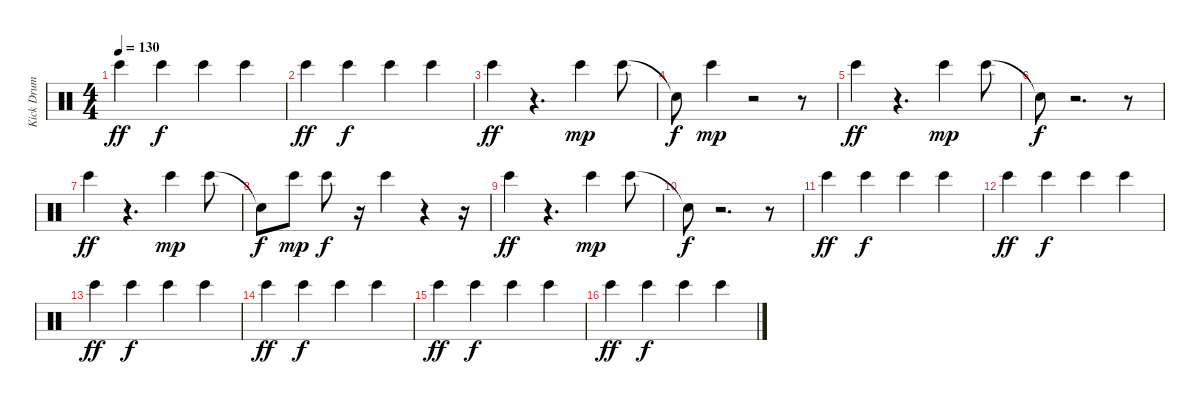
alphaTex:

\track ("Kick Drum" "Kick Drum") {instrument percussion}
\staff {score}
\articulation defaults
\ts (4 4)
\tempo 130
\clef neutral
\ks c "Bongo High (hit)".4{dy ff} "Bongo High (hit)".4{dy f} "Bongo High (hit)".4 "Bongo High (hit)".4
|
"Bongo High (hit)".4{dy ff} "Bongo High (hit)".4{dy f} "Bongo High (hit)".4 "Bongo High (hit)".4 |
"Bongo High (hit)".4{dy ff} r.4{d} "Bongo High (hit)".4{dy mp} "Bongo High (hit)".8 |
"Snare (hit)"{t}.8{dy f} "Bongo High (hit)".4{dy mp} r.2 r.8 |
"Bongo High (hit)".4{dy ff} r.4{d} "Bongo High (hit)".4{dy mp} "Bongo High (hit)".8 |
"Snare (hit)"{t}.8{dy f} r.2{d} r.8 |
"Bongo High (hit)".4{dy ff} r.4{d} "Bongo High (hit)".4{dy mp} "Bongo High (hit)".8 |
"Snare (hit)"{t}.8{dy f} "Bongo High (hit)".8{dy mp} "Bongo High (hit)".8{dy f} r.16 "Bongo High (hit)".4 r.4 r.16 |
"Bongo High (hit)".4{dy ff} r.4{d} "Bongo High (hit)".4{dy mp} "Bongo High (hit)".8 |
"Snare (hit)"{t}.8{dy f} r.2{d} r.8 |
"Bongo High (hit)".4{dy ff} "Bongo High (hit)".4{dy f} "Bongo High (hit)".4 "Bongo High (hit)".4 |
"Bongo High (hit)".4{dy ff} "Bongo High (hit)".4{dy f} "Bongo High (hit)".4 "Bongo High (hit)".4 |
"Bongo High (hit)".4{dy ff} "Bongo High (hit)".4{dy f} "Bongo High (hit)".4 "Bongo High (hit)".4 |
"Bongo High (hit)".4{dy ff} "Bongo High (hit)".4{dy f} "Bongo High (hit)".4 "Bongo High (hit)".4 |
"Bongo High (hit)".4{dy ff} "Bongo High (hit)".4{dy f} "Bongo High (hit)".4 "Bongo High (hit)".4 |
"Bongo High (hit)".4{dy ff} "Bongo High (hit)".4{dy f} "Bongo High (hit)".4 "Bongo High (hit)".4
